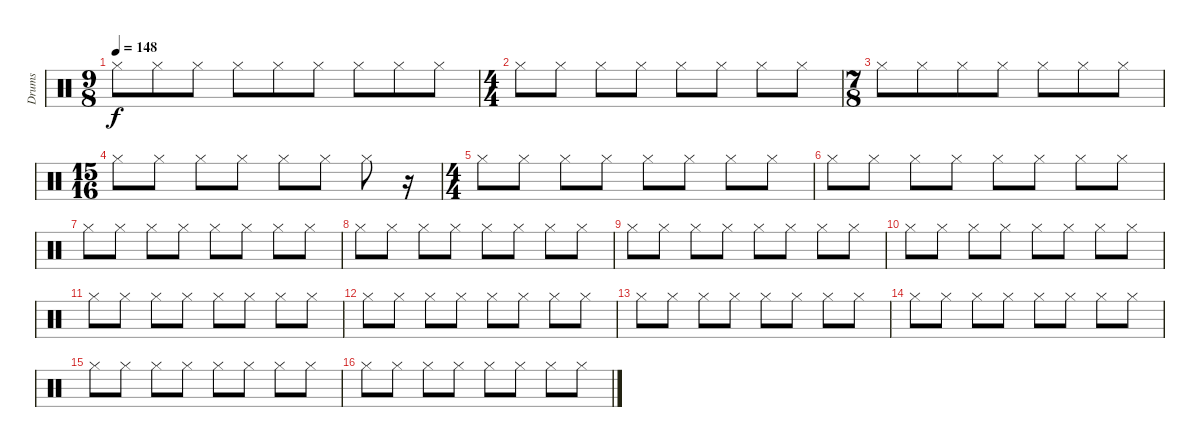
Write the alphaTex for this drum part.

\track ("Drums" "Drums") {instrument percussion}
\staff {score}
\articulation defaults
\ts (9 8)
\tempo 148
\clef neutral
\ks c "Hi-Hat (closed)".8{dy f} "Hi-Hat (closed)".8 "Hi-Hat (closed)".8 "Hi-Hat (closed)".8 "Hi-Hat (closed)".8 "Hi-Hat (closed)".8 "Hi-Hat (closed)".8 "Hi-Hat (closed)".8 "Hi-Hat (closed)".8
|
\ts (4 4)
"Hi-Hat (closed)".8 "Hi-Hat (closed)".8 "Hi-Hat (closed)".8 "Hi-Hat (closed)".8 "Hi-Hat (closed)".8 "Hi-Hat (closed)".8 "Hi-Hat (closed)".8 "Hi-Hat (closed)".8 |
\ts (7 8)
"Hi-Hat (closed)".8 "Hi-Hat (closed)".8 "Hi-Hat (closed)".8 "Hi-Hat (closed)".8 "Hi-Hat (closed)".8 "Hi-Hat (closed)".8 "Hi-Hat (closed)".8 |
\ts (15 16)
"Hi-Hat (closed)".8 "Hi-Hat (closed)".8 "Hi-Hat (closed)".8 "Hi-Hat (closed)".8 "Hi-Hat (closed)".8 "Hi-Hat (closed)".8 "Hi-Hat (closed)".8 r.16 |
\ts (4 4)
"Hi-Hat (closed)".8 "Hi-Hat (closed)".8 "Hi-Hat (closed)".8 "Hi-Hat (closed)".8 "Hi-Hat (closed)".8 "Hi-Hat (closed)".8 "Hi-Hat (closed)".8 "Hi-Hat (closed)".8 |
"Hi-Hat (closed)".8 "Hi-Hat (closed)".8 "Hi-Hat (closed)".8 "Hi-Hat (closed)".8 "Hi-Hat (closed)".8 "Hi-Hat (closed)".8 "Hi-Hat (closed)".8 "Hi-Hat (closed)".8 |
"Hi-Hat (closed)".8 "Hi-Hat (closed)".8 "Hi-Hat (closed)".8 "Hi-Hat (closed)".8 "Hi-Hat (closed)".8 "Hi-Hat (closed)".8 "Hi-Hat (closed)".8 "Hi-Hat (closed)".8 |
"Hi-Hat (closed)".8 "Hi-Hat (closed)".8 "Hi-Hat (closed)".8 "Hi-Hat (closed)".8 "Hi-Hat (closed)".8 "Hi-Hat (closed)".8 "Hi-Hat (closed)".8 "Hi-Hat (closed)".8 |
"Hi-Hat (closed)".8 "Hi-Hat (closed)".8 "Hi-Hat (closed)".8 "Hi-Hat (closed)".8 "Hi-Hat (closed)".8 "Hi-Hat (closed)".8 "Hi-Hat (closed)".8 "Hi-Hat (closed)".8 |
"Hi-Hat (closed)".8 "Hi-Hat (closed)".8 "Hi-Hat (closed)".8 "Hi-Hat (closed)".8 "Hi-Hat (closed)".8 "Hi-Hat (closed)".8 "Hi-Hat (closed)".8 "Hi-Hat (closed)".8 |
"Hi-Hat (closed)".8 "Hi-Hat (closed)".8 "Hi-Hat (closed)".8 "Hi-Hat (closed)".8 "Hi-Hat (closed)".8 "Hi-Hat (closed)".8 "Hi-Hat (closed)".8 "Hi-Hat (closed)".8 |
"Hi-Hat (closed)".8 "Hi-Hat (closed)".8 "Hi-Hat (closed)".8 "Hi-Hat (closed)".8 "Hi-Hat (closed)".8 "Hi-Hat (closed)".8 "Hi-Hat (closed)".8 "Hi-Hat (closed)".8 |
"Hi-Hat (closed)".8 "Hi-Hat (closed)".8 "Hi-Hat (closed)".8 "Hi-Hat (closed)".8 "Hi-Hat (closed)".8 "Hi-Hat (closed)".8 "Hi-Hat (closed)".8 "Hi-Hat (closed)".8 |
"Hi-Hat (closed)".8 "Hi-Hat (closed)".8 "Hi-Hat (closed)".8 "Hi-Hat (closed)".8 "Hi-Hat (closed)".8 "Hi-Hat (closed)".8 "Hi-Hat (closed)".8 "Hi-Hat (closed)".8 |
"Hi-Hat (closed)".8 "Hi-Hat (closed)".8 "Hi-Hat (closed)".8 "Hi-Hat (closed)".8 "Hi-Hat (closed)".8 "Hi-Hat (closed)".8 "Hi-Hat (closed)".8 "Hi-Hat (closed)".8 |
"Hi-Hat (closed)".8 "Hi-Hat (closed)".8 "Hi-Hat (closed)".8 "Hi-Hat (closed)".8 "Hi-Hat (closed)".8 "Hi-Hat (closed)".8 "Hi-Hat (closed)".8 "Hi-Hat (closed)".8
